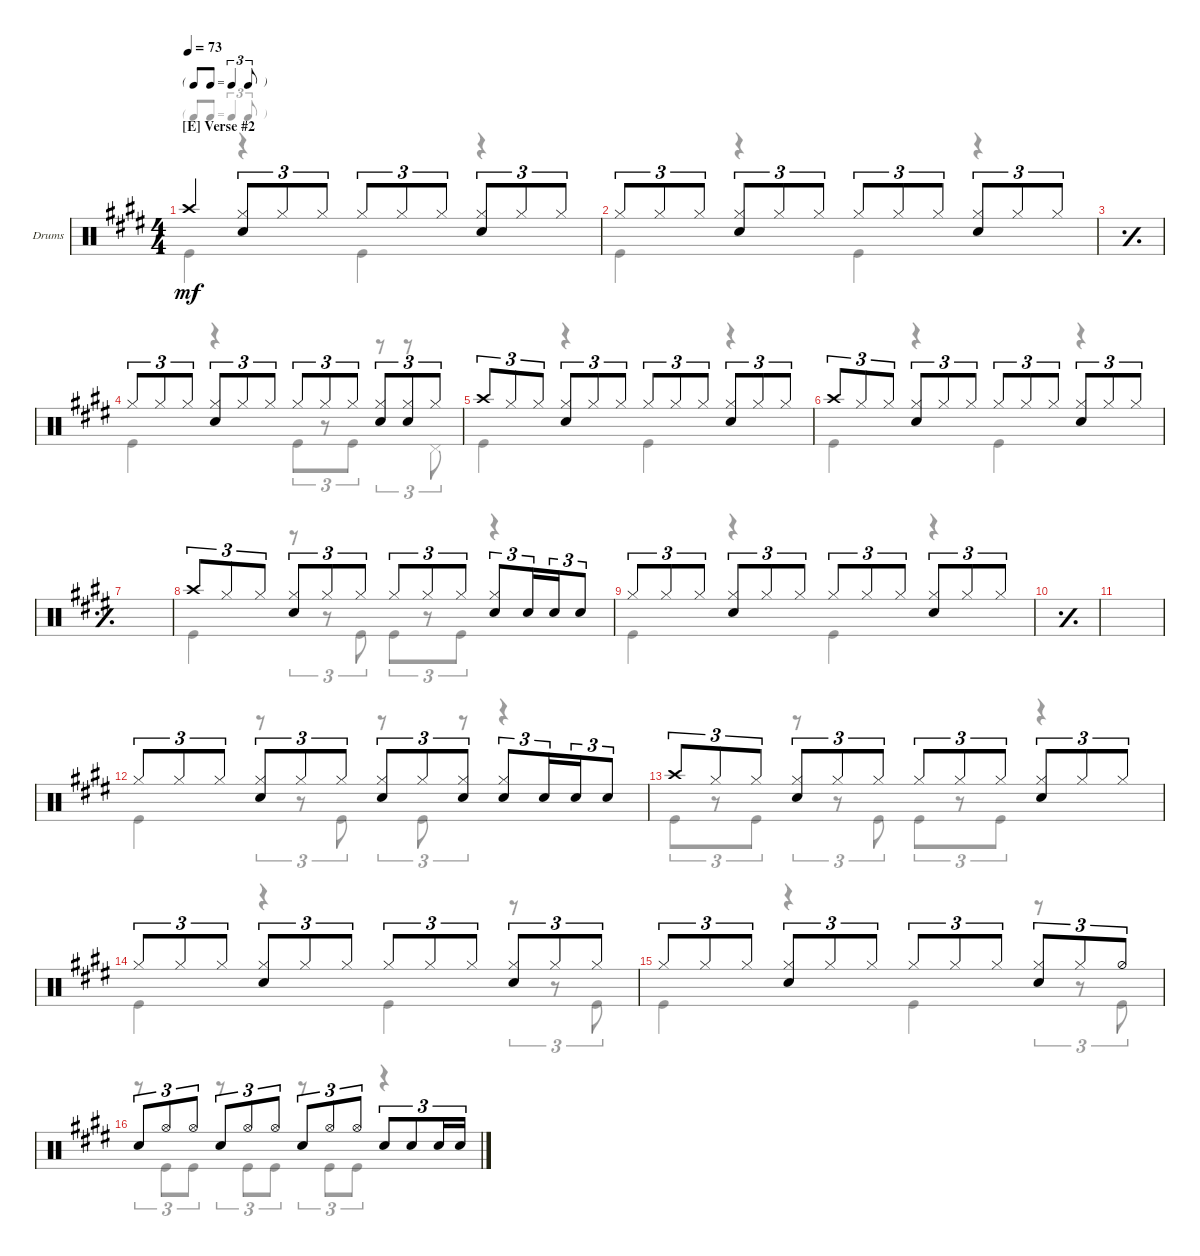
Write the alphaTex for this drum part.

\defaultSystemsLayout 4
\bracketExtendMode groupsimilarinstruments
\firstSystemTrackNameOrientation horizontal
\otherSystemsTrackNameOrientation horizontal
\track ("Drumkit" "Drums") {instrument percussion}
\staff {score}
\articulation defaults
\voice
\ts (4 4)
\tf triplet8th
\section ("E" "Verse #2")
\tempo 73
\clef neutral
\ks e "Crash high (hit)".4{dy mf}
("Hi-Hat (closed)" "Snare (hit) 2").8{tu (3 2)} "Hi-Hat (closed)".8{tu (3 2)} "Hi-Hat (closed)".8{tu (3 2)} "Hi-Hat (closed)".8{tu (3 2)} "Hi-Hat (closed)".8{tu (3 2)} "Hi-Hat (closed)".8{tu (3 2)} ("Hi-Hat (closed)" "Snare (hit) 2").8{tu (3 2)} "Hi-Hat (closed)".8{tu (3 2)} "Hi-Hat (closed)".8{tu (3 2)} |
"Hi-Hat (closed)".8{tu (3 2)} "Hi-Hat (closed)".8{tu (3 2)} "Hi-Hat (closed)".8{tu (3 2)} ("Hi-Hat (closed)" "Snare (hit) 2").8{tu (3 2)} "Hi-Hat (closed)".8{tu (3 2)} "Hi-Hat (closed)".8{tu (3 2)} "Hi-Hat (closed)".8{tu (3 2)} "Hi-Hat (closed)".8{tu (3 2)} "Hi-Hat (closed)".8{tu (3 2)} ("Hi-Hat (closed)" "Snare (hit) 2").8{tu (3 2)} "Hi-Hat (closed)".8{tu (3 2)} "Hi-Hat (closed)".8{tu (3 2)} |
\simile simple
|
\simile none "Hi-Hat (closed)".8{tu (3 2)} "Hi-Hat (closed)".8{tu (3 2)} "Hi-Hat (closed)".8{tu (3 2)}
("Hi-Hat (closed)" "Snare (hit) 2").8{tu (3 2)} "Hi-Hat (closed)".8{tu (3 2)} "Hi-Hat (closed)".8{tu (3 2)} "Hi-Hat (closed)".8{tu (3 2)} "Hi-Hat (closed)".8{tu (3 2)} "Hi-Hat (closed)".8{tu (3 2)} ("Hi-Hat (closed)" "Snare (hit) 2").8{tu (3 2)} ("Hi-Hat (closed)" "Snare (hit) 2").8{tu (3 2)} "Hi-Hat (closed)".8{tu (3 2)} |
"Crash high (hit)".8{tu (3 2)} "Hi-Hat (closed)".8{tu (3 2)} "Hi-Hat (closed)".8{tu (3 2)} ("Hi-Hat (closed)" "Snare (hit) 2").8{tu (3 2)} "Hi-Hat (closed)".8{tu (3 2)} "Hi-Hat (closed)".8{tu (3 2)} "Hi-Hat (closed)".8{tu (3 2)} "Hi-Hat (closed)".8{tu (3 2)} "Hi-Hat (closed)".8{tu (3 2)} ("Hi-Hat (closed)" "Snare (hit) 2").8{tu (3 2)} "Hi-Hat (closed)".8{tu (3 2)} "Hi-Hat (closed)".8{tu (3 2)} |
"Crash high (hit)".8{tu (3 2)} "Hi-Hat (closed)".8{tu (3 2)} "Hi-Hat (closed)".8{tu (3 2)} ("Hi-Hat (closed)" "Snare (hit) 2").8{tu (3 2)} "Hi-Hat (closed)".8{tu (3 2)} "Hi-Hat (closed)".8{tu (3 2)} "Hi-Hat (closed)".8{tu (3 2)} "Hi-Hat (closed)".8{tu (3 2)} "Hi-Hat (closed)".8{tu (3 2)} ("Hi-Hat (closed)" "Snare (hit) 2").8{tu (3 2)} "Hi-Hat (closed)".8{tu (3 2)} "Hi-Hat (closed)".8{tu (3 2)} |
\simile simple
|
\simile none "Crash high (hit)".8{tu (3 2)} "Hi-Hat (closed)".8{tu (3 2)} "Hi-Hat (closed)".8{tu (3 2)}
("Hi-Hat (closed)" "Snare (hit) 2").8{tu (3 2)} "Hi-Hat (closed)".8{tu (3 2)} "Hi-Hat (closed)".8{tu (3 2)} "Hi-Hat (closed)".8{tu (3 2)} "Hi-Hat (closed)".8{tu (3 2)} "Hi-Hat (closed)".8{tu (3 2)} ("Hi-Hat (closed)" "Snare (hit) 2").8{tu (3 2)} "Snare (hit) 2".16{tu (3 2) beam merge} "Snare (hit) 2".16{tu (3 2)} "Snare (hit) 2".8{tu (3 2)} |
"Hi-Hat (closed)".8{tu (3 2)} "Hi-Hat (closed)".8{tu (3 2)} "Hi-Hat (closed)".8{tu (3 2)} ("Hi-Hat (closed)" "Snare (hit) 2").8{tu (3 2)} "Hi-Hat (closed)".8{tu (3 2)} "Hi-Hat (closed)".8{tu (3 2)} "Hi-Hat (closed)".8{tu (3 2)} "Hi-Hat (closed)".8{tu (3 2)} "Hi-Hat (closed)".8{tu (3 2)} ("Hi-Hat (closed)" "Snare (hit) 2").8{tu (3 2)} "Hi-Hat (closed)".8{tu (3 2)} "Hi-Hat (closed)".8{tu (3 2)} |
\simile simple
|
|
\simile none "Hi-Hat (closed)".8{tu (3 2)} "Hi-Hat (closed)".8{tu (3 2)} "Hi-Hat (closed)".8{tu (3 2)}
("Hi-Hat (closed)" "Snare (hit) 2").8{tu (3 2)} "Hi-Hat (closed)".8{tu (3 2)} "Hi-Hat (closed)".8{tu (3 2)} ("Hi-Hat (closed)" "Snare (hit) 2").8{tu (3 2)} "Hi-Hat (closed)".8{tu (3 2)} ("Hi-Hat (closed)" "Snare (hit) 2").8{tu (3 2)} ("Snare (hit) 2" "Hi-Hat (closed)").8{tu (3 2)} "Snare (hit) 2".16{tu (3 2) beam merge} "Snare (hit) 2".16{tu (3 2)} "Snare (hit) 2".8{tu (3 2)} |
"Crash high (hit)".8{tu (3 2)} "Hi-Hat (closed)".8{tu (3 2)} "Hi-Hat (closed)".8{tu (3 2)} ("Hi-Hat (closed)" "Snare (hit) 2").8{tu (3 2)} "Hi-Hat (closed)".8{tu (3 2)} "Hi-Hat (closed)".8{tu (3 2)} "Hi-Hat (closed)".8{tu (3 2)} "Hi-Hat (closed)".8{tu (3 2)} "Hi-Hat (closed)".8{tu (3 2)} ("Hi-Hat (closed)" "Snare (hit) 2").8{tu (3 2)} "Hi-Hat (closed)".8{tu (3 2)} "Hi-Hat (closed)".8{tu (3 2)} |
"Hi-Hat (closed)".8{tu (3 2)} "Hi-Hat (closed)".8{tu (3 2)} "Hi-Hat (closed)".8{tu (3 2)} ("Hi-Hat (closed)" "Snare (hit) 2").8{tu (3 2)} "Hi-Hat (closed)".8{tu (3 2)} "Hi-Hat (closed)".8{tu (3 2)} "Hi-Hat (closed)".8{tu (3 2)} "Hi-Hat (closed)".8{tu (3 2)} "Hi-Hat (closed)".8{tu (3 2)} ("Hi-Hat (closed)" "Snare (hit) 2").8{tu (3 2)} "Hi-Hat (closed)".8{tu (3 2)} "Hi-Hat (closed)".8{tu (3 2)} |
"Hi-Hat (closed)".8{tu (3 2)} "Hi-Hat (closed)".8{tu (3 2)} "Hi-Hat (closed)".8{tu (3 2)} ("Hi-Hat (closed)" "Snare (hit) 2").8{tu (3 2)} "Hi-Hat (closed)".8{tu (3 2)} "Hi-Hat (closed)".8{tu (3 2)} "Hi-Hat (closed)".8{tu (3 2)} "Hi-Hat (closed)".8{tu (3 2)} "Hi-Hat (closed)".8{tu (3 2)} ("Hi-Hat (closed)" "Snare (hit) 2").8{tu (3 2)} "Hi-Hat (closed)".8{tu (3 2)} "Hi-Hat (half)".8{tu (3 2)} |
"Snare (hit) 2".8{tu (3 2)} "Hi-Hat (open)".8{tu (3 2)} "Hi-Hat (open)".8{tu (3 2)} "Snare (hit) 2".8{tu (3 2)} "Hi-Hat (open)".8{tu (3 2)} "Hi-Hat (open)".8{tu (3 2)} "Snare (hit) 2".8{tu (3 2)} "Hi-Hat (open)".8{tu (3 2)} "Hi-Hat (open)".8{tu (3 2)} "Snare (hit) 2".8{tu (3 2)} "Snare (hit) 2".8{tu (3 2)} "Snare (hit) 2".16{tu (3 2)} "Snare (hit) 2".16{tu (3 2)}
\voice
\clef neutral
\ottava regular
\simile none
\ks e "Kick (hit)".4{dy mf}
r.4 "Kick (hit)".4 r.4 |
"Kick (hit)".4 r.4 "Kick (hit)".4 r.4 |
\simile simple
|
\simile none "Kick (hit)".4
r.4 "Kick (hit)".8{tu (3 2)} r.8{tu (3 2)} "Kick (hit)".8{tu (3 2)} r.8{tu (3 2)} r.8{tu (3 2)} "Pedal Hi-Hat (hit)".8{tu (3 2)} |
"Kick (hit)".4 r.4 "Kick (hit)".4 r.4 |
"Kick (hit)".4 r.4 "Kick (hit)".4 r.4 |
\simile simple
|
\simile none "Kick (hit)".4
r.8{tu (3 2)} r.8{tu (3 2)} "Kick (hit)".8{tu (3 2)} "Kick (hit)".8{tu (3 2)} r.8{tu (3 2)} "Kick (hit)".8{tu (3 2)} r.4 |
"Kick (hit)".4 r.4 "Kick (hit)".4 r.4 |
\simile simple
|
|
\simile none "Kick (hit)".4
r.8{tu (3 2)} r.8{tu (3 2)} "Kick (hit)".8{tu (3 2)} r.8{tu (3 2)} "Kick (hit)".8{tu (3 2)} r.8{tu (3 2)} r.4 |
"Kick (hit)".8{tu (3 2)} r.8{tu (3 2)} "Kick (hit)".8{tu (3 2)} r.8{tu (3 2)} r.8{tu (3 2)} "Kick (hit)".8{tu (3 2)} "Kick (hit)".8{tu (3 2)} r.8{tu (3 2)} "Kick (hit)".8{tu (3 2)} r.4 |
"Kick (hit)".4 r.4 "Kick (hit)".4 r.8{tu (3 2)} r.8{tu (3 2)} "Kick (hit)".8{tu (3 2)} |
"Kick (hit)".4 r.4 "Kick (hit)".4 r.8{tu (3 2)} r.8{tu (3 2)} "Kick (hit)".8{tu (3 2)} |
r.8{tu (3 2)} "Kick (hit)".8{tu (3 2)} "Kick (hit)".8{tu (3 2)} r.8{tu (3 2)} "Kick (hit)".8{tu (3 2)} "Kick (hit)".8{tu (3 2)} r.8{tu (3 2)} "Kick (hit)".8{tu (3 2)} "Kick (hit)".8{tu (3 2)} r.4
